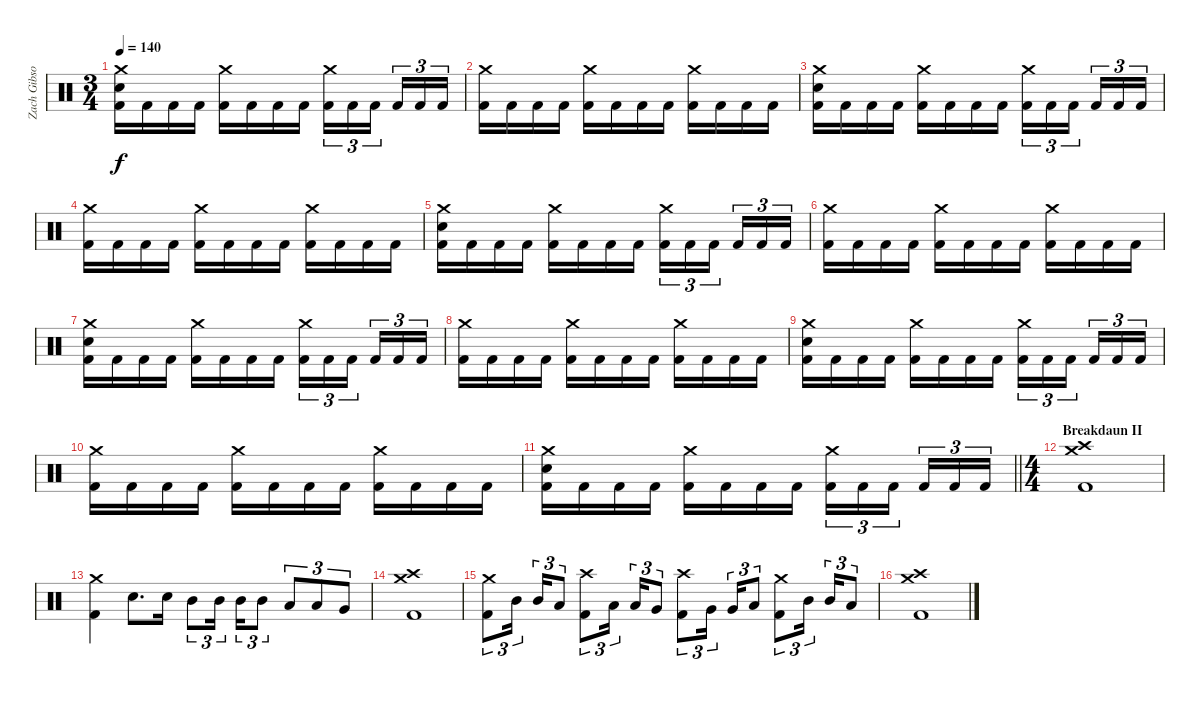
\track ("Zach Gibson" "Zach Gibso") {instrument percussion}
\staff {score}
\articulation defaults
\ts (3 4)
\tempo 140
\clef neutral
\ks c
("Crash medium (hit)" "Snare (hit) 2" "Kick (hit) 2").16{dy f} "Kick (hit) 2".16 "Kick (hit) 2".16 "Kick (hit) 2".16 ("Crash medium (hit)" "Kick (hit) 2").16 "Kick (hit) 2".16 "Kick (hit) 2".16 "Kick (hit) 2".16 ("Crash medium (hit)" "Kick (hit) 2").16{tu (3 2)} "Kick (hit) 2".16{tu (3 2)} "Kick (hit) 2".16{tu (3 2) beam splitsecondary} "Kick (hit) 2".16{tu (3 2)} "Kick (hit) 2".16{tu (3 2)} "Kick (hit) 2".16{tu (3 2)} |
("Crash medium (hit)" "Kick (hit) 2").16 "Kick (hit) 2".16 "Kick (hit) 2".16 "Kick (hit) 2".16 ("Crash medium (hit)" "Kick (hit) 2").16 "Kick (hit) 2".16 "Kick (hit) 2".16 "Kick (hit) 2".16 ("Crash medium (hit)" "Kick (hit) 2").16 "Kick (hit) 2".16 "Kick (hit) 2".16 "Kick (hit) 2".16 |
("Crash medium (hit)" "Snare (hit) 2" "Kick (hit) 2").16 "Kick (hit) 2".16 "Kick (hit) 2".16 "Kick (hit) 2".16 ("Crash medium (hit)" "Kick (hit) 2").16 "Kick (hit) 2".16 "Kick (hit) 2".16 "Kick (hit) 2".16 ("Crash medium (hit)" "Kick (hit) 2").16{tu (3 2)} "Kick (hit) 2".16{tu (3 2)} "Kick (hit) 2".16{tu (3 2) beam splitsecondary} "Kick (hit) 2".16{tu (3 2)} "Kick (hit) 2".16{tu (3 2)} "Kick (hit) 2".16{tu (3 2)} |
("Crash medium (hit)" "Kick (hit) 2").16 "Kick (hit) 2".16 "Kick (hit) 2".16 "Kick (hit) 2".16 ("Crash medium (hit)" "Kick (hit) 2").16 "Kick (hit) 2".16 "Kick (hit) 2".16 "Kick (hit) 2".16 ("Crash medium (hit)" "Kick (hit) 2").16 "Kick (hit) 2".16 "Kick (hit) 2".16 "Kick (hit) 2".16 |
("Crash medium (hit)" "Snare (hit) 2" "Kick (hit) 2").16 "Kick (hit) 2".16 "Kick (hit) 2".16 "Kick (hit) 2".16 ("Crash medium (hit)" "Kick (hit) 2").16 "Kick (hit) 2".16 "Kick (hit) 2".16 "Kick (hit) 2".16 ("Crash medium (hit)" "Kick (hit) 2").16{tu (3 2)} "Kick (hit) 2".16{tu (3 2)} "Kick (hit) 2".16{tu (3 2) beam splitsecondary} "Kick (hit) 2".16{tu (3 2)} "Kick (hit) 2".16{tu (3 2)} "Kick (hit) 2".16{tu (3 2)} |
("Crash medium (hit)" "Kick (hit) 2").16 "Kick (hit) 2".16 "Kick (hit) 2".16 "Kick (hit) 2".16 ("Crash medium (hit)" "Kick (hit) 2").16 "Kick (hit) 2".16 "Kick (hit) 2".16 "Kick (hit) 2".16 ("Crash medium (hit)" "Kick (hit) 2").16 "Kick (hit) 2".16 "Kick (hit) 2".16 "Kick (hit) 2".16 |
("Crash medium (hit)" "Snare (hit) 2" "Kick (hit) 2").16 "Kick (hit) 2".16 "Kick (hit) 2".16 "Kick (hit) 2".16 ("Crash medium (hit)" "Kick (hit) 2").16 "Kick (hit) 2".16 "Kick (hit) 2".16 "Kick (hit) 2".16 ("Crash medium (hit)" "Kick (hit) 2").16{tu (3 2)} "Kick (hit) 2".16{tu (3 2)} "Kick (hit) 2".16{tu (3 2) beam splitsecondary} "Kick (hit) 2".16{tu (3 2)} "Kick (hit) 2".16{tu (3 2)} "Kick (hit) 2".16{tu (3 2)} |
("Crash medium (hit)" "Kick (hit) 2").16 "Kick (hit) 2".16 "Kick (hit) 2".16 "Kick (hit) 2".16 ("Crash medium (hit)" "Kick (hit) 2").16 "Kick (hit) 2".16 "Kick (hit) 2".16 "Kick (hit) 2".16 ("Crash medium (hit)" "Kick (hit) 2").16 "Kick (hit) 2".16 "Kick (hit) 2".16 "Kick (hit) 2".16 |
("Crash medium (hit)" "Snare (hit) 2" "Kick (hit) 2").16 "Kick (hit) 2".16 "Kick (hit) 2".16 "Kick (hit) 2".16 ("Crash medium (hit)" "Kick (hit) 2").16 "Kick (hit) 2".16 "Kick (hit) 2".16 "Kick (hit) 2".16 ("Crash medium (hit)" "Kick (hit) 2").16{tu (3 2)} "Kick (hit) 2".16{tu (3 2)} "Kick (hit) 2".16{tu (3 2) beam splitsecondary} "Kick (hit) 2".16{tu (3 2)} "Kick (hit) 2".16{tu (3 2)} "Kick (hit) 2".16{tu (3 2)} |
("Crash medium (hit)" "Kick (hit) 2").16 "Kick (hit) 2".16 "Kick (hit) 2".16 "Kick (hit) 2".16 ("Crash medium (hit)" "Kick (hit) 2").16 "Kick (hit) 2".16 "Kick (hit) 2".16 "Kick (hit) 2".16 ("Crash medium (hit)" "Kick (hit) 2").16 "Kick (hit) 2".16 "Kick (hit) 2".16 "Kick (hit) 2".16 |
\barLineRight lightlight
("Crash medium (hit)" "Snare (hit) 2" "Kick (hit) 2").16 "Kick (hit) 2".16 "Kick (hit) 2".16 "Kick (hit) 2".16 ("Crash medium (hit)" "Kick (hit) 2").16 "Kick (hit) 2".16 "Kick (hit) 2".16 "Kick (hit) 2".16 ("Crash medium (hit)" "Kick (hit) 2").16{tu (3 2)} "Kick (hit) 2".16{tu (3 2)} "Kick (hit) 2".16{tu (3 2) beam splitsecondary} "Kick (hit) 2".16{tu (3 2)} "Kick (hit) 2".16{tu (3 2)} "Kick (hit) 2".16{tu (3 2)} |
\ts (4 4)
\section ("" "Breakdaun II")
("Crash medium (hit)" "Crash high (hit)" "Kick (hit) 2").1 |
("Crash medium (hit)" "Kick (hit) 2").4 "Snare (hit) 2".8{d} "Snare (hit) 2".16 "Mid Tom (hit)".8{tu (3 2)} "Mid Tom (hit)".16{tu (3 2) beam splitsecondary} "Mid Tom (hit)".16{tu (3 2)} "Mid Tom (hit)".8{tu (3 2)} "Low Tom (hit)".8{tu (3 2)} "Low Tom (hit)".8{tu (3 2)} "Very Low Tom (hit)".8{tu (3 2)} |
("Crash medium (hit)" "Crash high (hit)" "Kick (hit) 2").1 |
("Crash medium (hit)" "Kick (hit) 2").8{tu (3 2)} "Mid Tom (hit)".16{tu (3 2) beam splitsecondary} "Mid Tom (hit)".16{tu (3 2)} "Low Tom (hit)".8{tu (3 2)} ("Crash high (hit)" "Kick (hit) 2").8{tu (3 2)} "Low Tom (hit)".16{tu (3 2) beam splitsecondary} "Low Tom (hit)".16{tu (3 2)} "Very Low Tom (hit)".8{tu (3 2)} ("Crash high (hit)" "Kick (hit) 2").8{tu (3 2)} "Very Low Tom (hit)".16{tu (3 2) beam splitsecondary} "Very Low Tom (hit)".16{tu (3 2)} "Low Floor Tom (hit)".8{tu (3 2)} ("Crash medium (hit)" "Kick (hit) 2").8{tu (3 2)} "Mid Tom (hit)".16{tu (3 2) beam splitsecondary} "Mid Tom (hit)".16{tu (3 2)} "Low Tom (hit)".8{tu (3 2)} |
("Crash medium (hit)" "Crash high (hit)" "Kick (hit) 2").1
